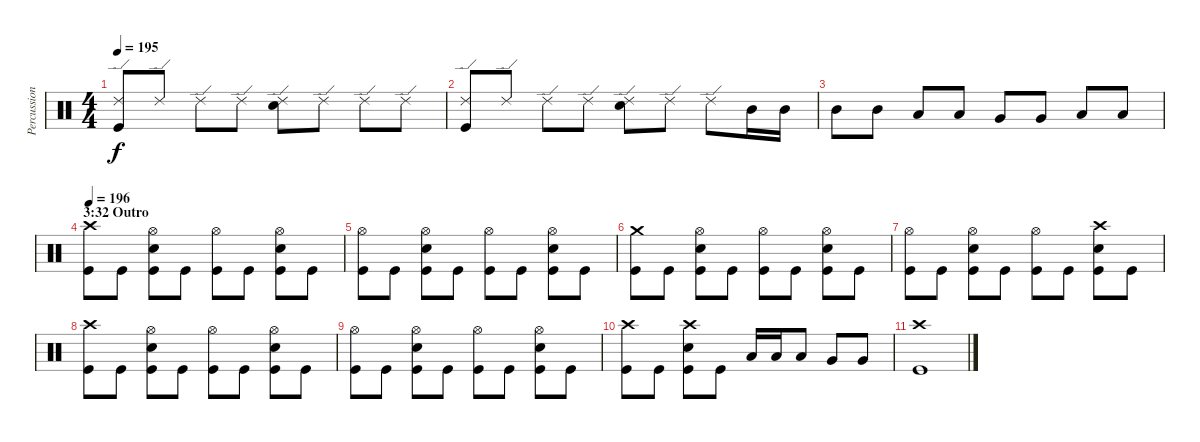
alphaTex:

\track ("Percussion" "Percussion") {instrument percussion}
\staff {score}
\articulation defaults
\ts (4 4)
\tempo 195
\clef neutral
\ks c
("Ride (edge) 2" "Kick (hit)").8{dy f} "Ride (edge) 2".8 "Ride (edge) 2".8 "Ride (edge) 2".8 ("Ride (edge) 2" "Snare (hit) 2").8 "Ride (edge) 2".8 "Ride (edge) 2".8 "Ride (edge) 2".8 |
("Ride (edge) 2" "Kick (hit)").8 "Ride (edge) 2".8 "Ride (edge) 2".8 "Ride (edge) 2".8 ("Ride (edge) 2" "Snare (hit) 2").8 "Ride (edge) 2".8 "Ride (edge) 2".8 "Mid Tom (hit)".16 "Mid Tom (hit)".16 |
"Mid Tom (hit)".8 "Mid Tom (hit)".8 "Low Tom (hit)".8 "Low Tom (hit)".8 "Very Low Tom (hit)".8 "Very Low Tom (hit)".8 "Low Floor Tom (hit)".8 "Low Floor Tom (hit)".8 |
\section ("" "3:32 Outro")
\tempo 196
("Crash high (hit)" "Kick (hit)").8 "Kick (hit)".8 ("Hi-Hat (open)" "Snare (hit) 2" "Kick (hit)").8 "Kick (hit)".8 ("Hi-Hat (open)" "Kick (hit)").8 "Kick (hit)".8 ("Hi-Hat (open)" "Snare (hit) 2" "Kick (hit)").8 "Kick (hit)".8 |
("Hi-Hat (open)" "Kick (hit)").8 "Kick (hit)".8 ("Hi-Hat (open)" "Snare (hit) 2" "Kick (hit)").8 "Kick (hit)".8 ("Hi-Hat (open)" "Kick (hit)").8 "Kick (hit)".8 ("Hi-Hat (open)" "Snare (hit) 2" "Kick (hit)").8 "Kick (hit)".8 |
("Crash medium (hit)" "Kick (hit)").8 "Kick (hit)".8 ("Hi-Hat (open)" "Snare (hit) 2" "Kick (hit)").8 "Kick (hit)".8 ("Hi-Hat (open)" "Kick (hit)").8 "Kick (hit)".8 ("Hi-Hat (open)" "Snare (hit) 2" "Kick (hit)").8 "Kick (hit)".8 |
("Hi-Hat (open)" "Kick (hit)").8 "Kick (hit)".8 ("Hi-Hat (open)" "Snare (hit) 2" "Kick (hit)").8 "Kick (hit)".8 ("Hi-Hat (open)" "Kick (hit)").8 "Kick (hit)".8 ("Crash high (hit)" "Snare (hit) 2" "Kick (hit)").8 "Kick (hit)".8 |
("Crash high (hit)" "Kick (hit)").8 "Kick (hit)".8 ("Hi-Hat (open)" "Snare (hit) 2" "Kick (hit)").8 "Kick (hit)".8 ("Hi-Hat (open)" "Kick (hit)").8 "Kick (hit)".8 ("Hi-Hat (open)" "Snare (hit) 2" "Kick (hit)").8 "Kick (hit)".8 |
("Hi-Hat (open)" "Kick (hit)").8 "Kick (hit)".8 ("Hi-Hat (open)" "Snare (hit) 2" "Kick (hit)").8 "Kick (hit)".8 ("Hi-Hat (open)" "Kick (hit)").8 "Kick (hit)".8 ("Hi-Hat (open)" "Snare (hit) 2" "Kick (hit)").8 "Kick (hit)".8 |
("Crash high (hit)" "Kick (hit)").8 "Kick (hit)".8 ("Crash high (hit)" "Snare (hit) 2" "Kick (hit)").8 "Kick (hit)".8 "Low Tom (hit)".16 "Low Tom (hit)".16 "Low Tom (hit)".8 "Very Low Tom (hit)".8 "Very Low Tom (hit)".8 |
("Crash high (hit)" "Kick (hit)").1
